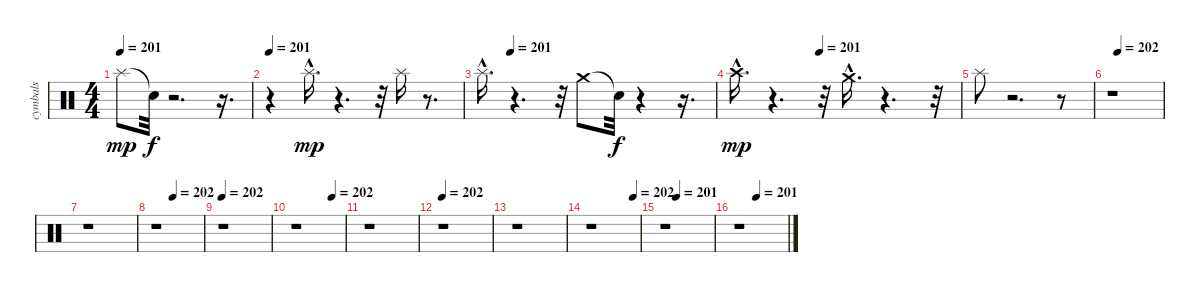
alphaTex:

\track ("cymbals" "cymbals") {instrument percussion}
\staff {score}
\articulation defaults
\ts (4 4)
\tempo 201
\clef neutral
\ks c "Splash (hit)".8{dy mp} "Snare (hit)"{t}.32{dy f}
r.2{d} r.16{d} |
\tempo 201
r.4 "Splash (hit)"{hac}.16{d dy mp} r.4{d} r.32 "Splash (hit)".16 r.8{d} |
\tempo (201 0.125)
"Splash (hit)"{hac}.16{d} r.4{d} r.32 "Crash medium (hit)".8 "Snare (hit)"{t}.32{dy f} r.4 r.16{d} |
\tempo (201 0.375)
"Crash high (hit)"{hac}.16{d dy mp} r.4{d} r.32 "Crash medium (hit)"{hac}.16{d} r.4{d} r.32 |
"Splash (hit)".8 r.2{d} r.8 |
\tempo (202 0.125)
r.1 |
r.1 |
\tempo (202 0.375)
r.1 |
\tempo 202
r.1 |
\tempo (202 0.75)
r.1 |
r.1 |
\tempo 202
r.1 |
r.1 |
\tempo (202 0.875)
r.1 |
\tempo (201 0.25)
r.1 |
\tempo (201 0.375)
r.1
